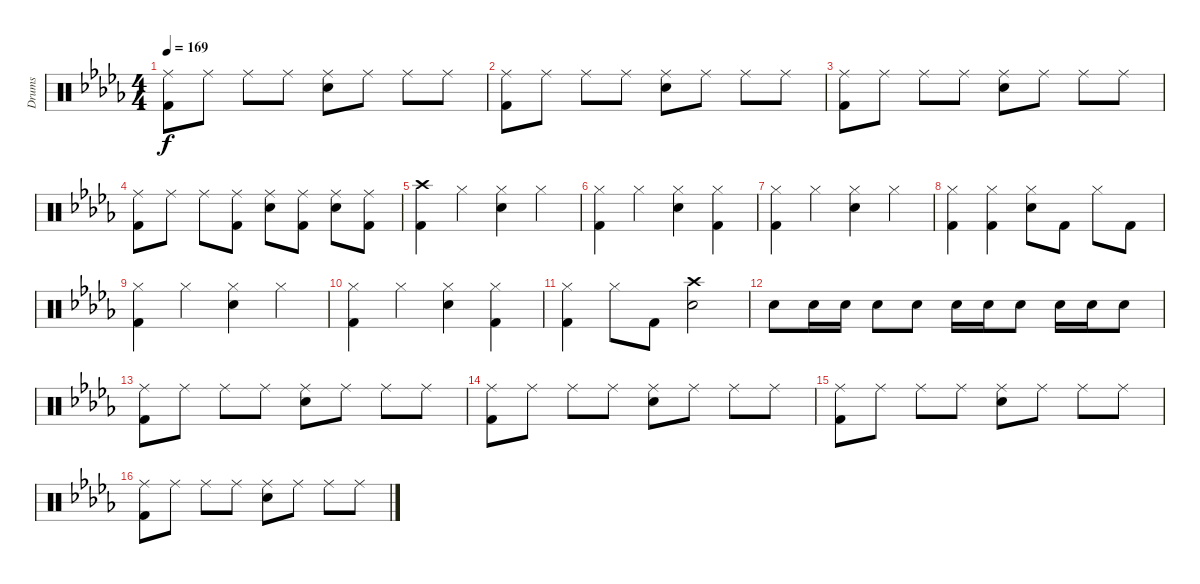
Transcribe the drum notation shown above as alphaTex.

\track ("Drums" "Drums") {instrument percussion}
\staff {score}
\articulation defaults
\ts (4 4)
\tempo 169
\clef neutral
\ks db
("Ride (middle)" "Kick (hit) 2").8{dy f} "Ride (middle)".8 "Ride (middle)".8 "Ride (middle)".8 ("Ride (middle)" "Snare (hit) 2").8 "Ride (middle)".8 "Ride (middle)".8 "Ride (middle)".8 |
("Ride (middle)" "Kick (hit) 2").8 "Ride (middle)".8 "Ride (middle)".8 "Ride (middle)".8 ("Ride (middle)" "Snare (hit) 2").8 "Ride (middle)".8 "Ride (middle)".8 "Ride (middle)".8 |
("Ride (middle)" "Kick (hit) 2").8 "Ride (middle)".8 "Ride (middle)".8 "Ride (middle)".8 ("Ride (middle)" "Snare (hit) 2").8 "Ride (middle)".8 "Ride (middle)".8 "Ride (middle)".8 |
("Ride (middle)" "Kick (hit) 2").8 "Ride (middle)".8 "Ride (middle)".8 ("Ride (middle)" "Kick (hit) 2").8 ("Ride (middle)" "Snare (hit) 2").8 ("Ride (middle)" "Kick (hit) 2").8 ("Ride (middle)" "Snare (hit) 2").8 ("Ride (middle)" "Kick (hit) 2").8 |
("Crash high (hit)" "Kick (hit) 2").4 "Hi-Hat (closed)".4 ("Hi-Hat (closed)" "Snare (hit) 2").4 "Hi-Hat (closed)".4 |
("Hi-Hat (closed)" "Kick (hit) 2").4 "Hi-Hat (closed)".4 ("Hi-Hat (closed)" "Snare (hit) 2").4 ("Hi-Hat (closed)" "Kick (hit) 2").4 |
("Hi-Hat (closed)" "Kick (hit) 2").4 "Hi-Hat (closed)".4 ("Hi-Hat (closed)" "Snare (hit) 2").4 "Hi-Hat (closed)".4 |
("Hi-Hat (closed)" "Kick (hit) 2").4 ("Hi-Hat (closed)" "Kick (hit) 2").4 ("Hi-Hat (closed)" "Snare (hit) 2").8 "Kick (hit) 2".8 "Hi-Hat (closed)".8 "Kick (hit) 2".8 |
("Hi-Hat (closed)" "Kick (hit) 2").4 "Hi-Hat (closed)".4 ("Hi-Hat (closed)" "Snare (hit) 2").4 "Hi-Hat (closed)".4 |
("Hi-Hat (closed)" "Kick (hit) 2").4 "Hi-Hat (closed)".4 ("Hi-Hat (closed)" "Snare (hit) 2").4 ("Hi-Hat (closed)" "Kick (hit) 2").4 |
("Hi-Hat (closed)" "Kick (hit) 2").4 "Hi-Hat (closed)".8 "Kick (hit) 2".8 ("Crash high (hit)" "Snare (hit) 2").2 |
"Snare (hit) 2".8 "Snare (hit) 2".16 "Snare (hit) 2".16 "Snare (hit) 2".8 "Snare (hit) 2".8 "Snare (hit) 2".16 "Snare (hit) 2".16 "Snare (hit) 2".8 "Snare (hit) 2".16 "Snare (hit) 2".16 "Snare (hit) 2".8 |
("Ride (middle)" "Kick (hit) 2").8 "Ride (middle)".8 "Ride (middle)".8 "Ride (middle)".8 ("Ride (middle)" "Snare (hit) 2").8 "Ride (middle)".8 "Ride (middle)".8 "Ride (middle)".8 |
("Ride (middle)" "Kick (hit) 2").8 "Ride (middle)".8 "Ride (middle)".8 "Ride (middle)".8 ("Ride (middle)" "Snare (hit) 2").8 "Ride (middle)".8 "Ride (middle)".8 "Ride (middle)".8 |
("Ride (middle)" "Kick (hit) 2").8 "Ride (middle)".8 "Ride (middle)".8 "Ride (middle)".8 ("Ride (middle)" "Snare (hit) 2").8 "Ride (middle)".8 "Ride (middle)".8 "Ride (middle)".8 |
("Ride (middle)" "Kick (hit) 2").8 "Ride (middle)".8 "Ride (middle)".8 "Ride (middle)".8 ("Ride (middle)" "Snare (hit) 2").8 "Ride (middle)".8 "Ride (middle)".8 "Ride (middle)".8
